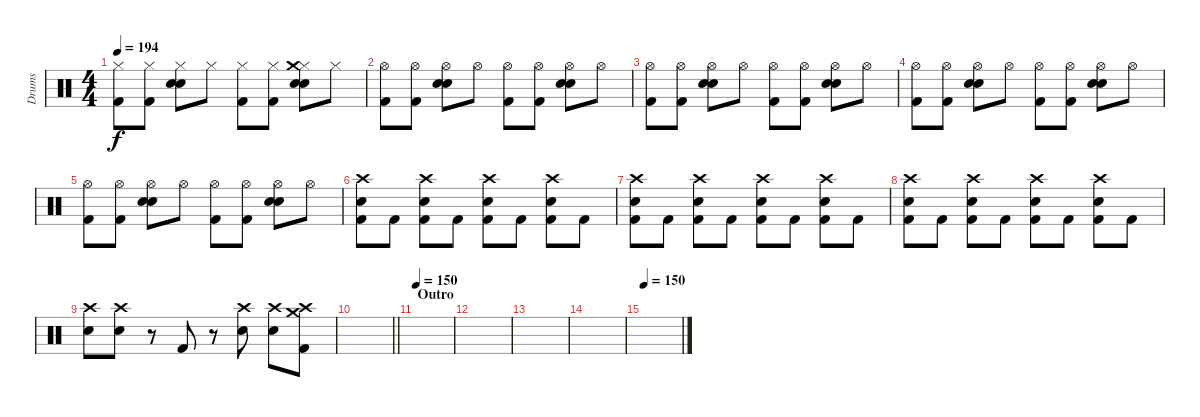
\track ("Drums" "Drums") {solo instrument percussion}
\staff {score}
\articulation defaults
\ts (4 4)
\tempo 194
\clef neutral
\ks c
("Hi-Hat (closed)" "Kick (hit) 2").8{dy f} ("Hi-Hat (closed)" "Kick (hit) 2").8 ("Hi-Hat (closed)" "Electric Snare (hit)" "Snare (hit) 2").8 "Hi-Hat (closed)".8 ("Hi-Hat (closed)" "Kick (hit) 2").8 ("Hi-Hat (closed)" "Kick (hit) 2").8 ("Hi-Hat (closed)" "Crash medium (hit)" "Electric Snare (hit)" "Snare (hit) 2").8 "Hi-Hat (closed)".8 |
("Hi-Hat (open)" "Kick (hit) 2").8 ("Hi-Hat (open)" "Kick (hit) 2").8 ("Hi-Hat (open)" "Electric Snare (hit)" "Snare (hit) 2").8 "Hi-Hat (open)".8 ("Hi-Hat (open)" "Kick (hit) 2").8 ("Hi-Hat (open)" "Kick (hit) 2").8 ("Hi-Hat (open)" "Electric Snare (hit)" "Snare (hit) 2").8 "Hi-Hat (open)".8 |
("Hi-Hat (open)" "Kick (hit) 2").8 ("Hi-Hat (open)" "Kick (hit) 2").8 ("Hi-Hat (open)" "Electric Snare (hit)" "Snare (hit) 2").8 "Hi-Hat (open)".8 ("Hi-Hat (open)" "Kick (hit) 2").8 ("Hi-Hat (open)" "Kick (hit) 2").8 ("Hi-Hat (open)" "Electric Snare (hit)" "Snare (hit) 2").8 "Hi-Hat (open)".8 |
("Hi-Hat (open)" "Kick (hit) 2").8 ("Hi-Hat (open)" "Kick (hit) 2").8 ("Hi-Hat (open)" "Electric Snare (hit)" "Snare (hit) 2").8 "Hi-Hat (open)".8 ("Hi-Hat (open)" "Kick (hit) 2").8 ("Hi-Hat (open)" "Kick (hit) 2").8 ("Hi-Hat (open)" "Electric Snare (hit)" "Snare (hit) 2").8 "Hi-Hat (open)".8 |
("Hi-Hat (open)" "Kick (hit) 2").8 ("Hi-Hat (open)" "Kick (hit) 2").8 ("Hi-Hat (open)" "Electric Snare (hit)" "Snare (hit) 2").8 "Hi-Hat (open)".8 ("Hi-Hat (open)" "Kick (hit) 2").8 ("Hi-Hat (open)" "Kick (hit) 2").8 ("Hi-Hat (open)" "Electric Snare (hit)" "Snare (hit) 2").8 "Hi-Hat (open)".8 |
("Crash high (hit)" "Snare (hit) 2" "Kick (hit) 2").8 "Kick (hit) 2".8 ("Crash high (hit)" "Snare (hit) 2" "Kick (hit) 2").8 "Kick (hit) 2".8 ("Crash high (hit)" "Snare (hit) 2" "Kick (hit) 2").8 "Kick (hit) 2".8 ("Crash high (hit)" "Snare (hit) 2" "Kick (hit) 2").8 "Kick (hit) 2".8 |
("Crash high (hit)" "Snare (hit) 2" "Kick (hit) 2").8 "Kick (hit) 2".8 ("Crash high (hit)" "Snare (hit) 2" "Kick (hit) 2").8 "Kick (hit) 2".8 ("Crash high (hit)" "Snare (hit) 2" "Kick (hit) 2").8 "Kick (hit) 2".8 ("Crash high (hit)" "Snare (hit) 2" "Kick (hit) 2").8 "Kick (hit) 2".8 |
("Crash high (hit)" "Snare (hit) 2" "Kick (hit) 2").8 "Kick (hit) 2".8 ("Crash high (hit)" "Snare (hit) 2" "Kick (hit) 2").8 "Kick (hit) 2".8 ("Crash high (hit)" "Snare (hit) 2" "Kick (hit) 2").8 "Kick (hit) 2".8 ("Crash high (hit)" "Snare (hit) 2" "Kick (hit) 2").8 "Kick (hit) 2".8 |
("Crash high (hit)" "Snare (hit) 2").8 ("Crash high (hit)" "Snare (hit) 2").8 r.8 "Kick (hit) 2".8 r.8 ("Crash high (hit)" "Snare (hit) 2").8 ("Crash high (hit)" "Snare (hit) 2").8 ("Crash medium (hit)" "Crash high (hit)" "Kick (hit) 2").8 |
\barLineRight lightlight
|
\section ("" "Outro")
\tempo 150
|
|
|
|
\tempo 150
